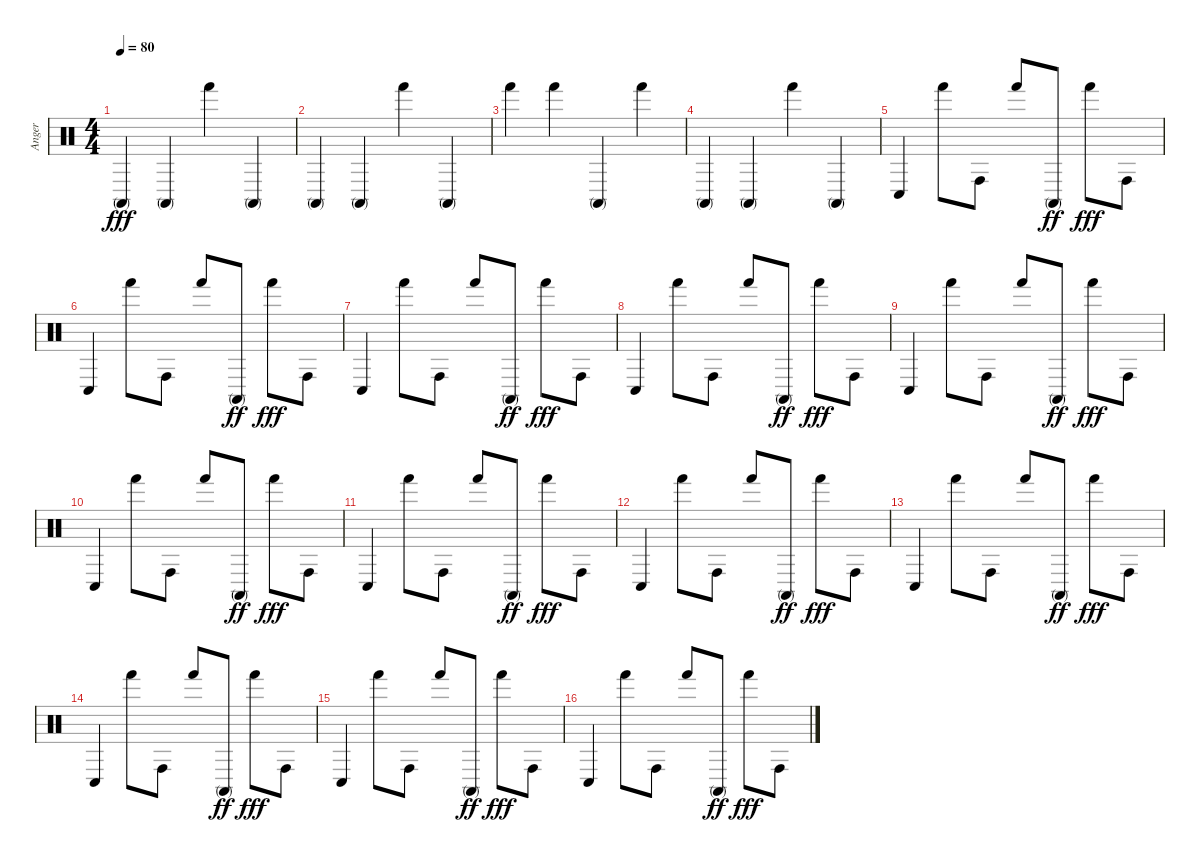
\track ("Anger" "Anger") {instrument percussion}
\staff {score}
\articulation defaults
\ts (4 4)
\tempo 80
\clef neutral
\ks c "Conga high (mute)".4{dy fff} "Conga high (mute)".4 "Hand (hit)".4 "Conga high (mute)".4
|
"Conga high (mute)".4 "Conga high (mute)".4 "Hand (hit)".4 "Conga high (mute)".4 |
"Hand (hit)".4 "Hand (hit)".4 "Conga high (mute)".4 "Hand (hit)".4 |
"Conga high (mute)".4 "Conga high (mute)".4 "Hand (hit)".4 "Conga high (mute)".4 |
"Conga low (hit)".4 "Hand (hit)".8 "Conga high (hit)".8 "Hand (hit)".8 "Conga high (mute)".8{dy ff} "Hand (hit)".8{dy fff} "Conga high (hit)".8 |
"Conga low (hit)".4 "Hand (hit)".8 "Conga high (hit)".8 "Hand (hit)".8 "Conga high (mute)".8{dy ff} "Hand (hit)".8{dy fff} "Conga high (hit)".8 |
"Conga low (hit)".4 "Hand (hit)".8 "Conga high (hit)".8 "Hand (hit)".8 "Conga high (mute)".8{dy ff} "Hand (hit)".8{dy fff} "Conga high (hit)".8 |
"Conga low (hit)".4 "Hand (hit)".8 "Conga high (hit)".8 "Hand (hit)".8 "Conga high (mute)".8{dy ff} "Hand (hit)".8{dy fff} "Conga high (hit)".8 |
"Conga low (hit)".4 "Hand (hit)".8 "Conga high (hit)".8 "Hand (hit)".8 "Conga high (mute)".8{dy ff} "Hand (hit)".8{dy fff} "Conga high (hit)".8 |
"Conga low (hit)".4 "Hand (hit)".8 "Conga high (hit)".8 "Hand (hit)".8 "Conga high (mute)".8{dy ff} "Hand (hit)".8{dy fff} "Conga high (hit)".8 |
"Conga low (hit)".4 "Hand (hit)".8 "Conga high (hit)".8 "Hand (hit)".8 "Conga high (mute)".8{dy ff} "Hand (hit)".8{dy fff} "Conga high (hit)".8 |
"Conga low (hit)".4 "Hand (hit)".8 "Conga high (hit)".8 "Hand (hit)".8 "Conga high (mute)".8{dy ff} "Hand (hit)".8{dy fff} "Conga high (hit)".8 |
"Conga low (hit)".4 "Hand (hit)".8 "Conga high (hit)".8 "Hand (hit)".8 "Conga high (mute)".8{dy ff} "Hand (hit)".8{dy fff} "Conga high (hit)".8 |
"Conga low (hit)".4 "Hand (hit)".8 "Conga high (hit)".8 "Hand (hit)".8 "Conga high (mute)".8{dy ff} "Hand (hit)".8{dy fff} "Conga high (hit)".8 |
"Conga low (hit)".4 "Hand (hit)".8 "Conga high (hit)".8 "Hand (hit)".8 "Conga high (mute)".8{dy ff} "Hand (hit)".8{dy fff} "Conga high (hit)".8 |
"Conga low (hit)".4 "Hand (hit)".8 "Conga high (hit)".8 "Hand (hit)".8 "Conga high (mute)".8{dy ff} "Hand (hit)".8{dy fff} "Conga high (hit)".8
